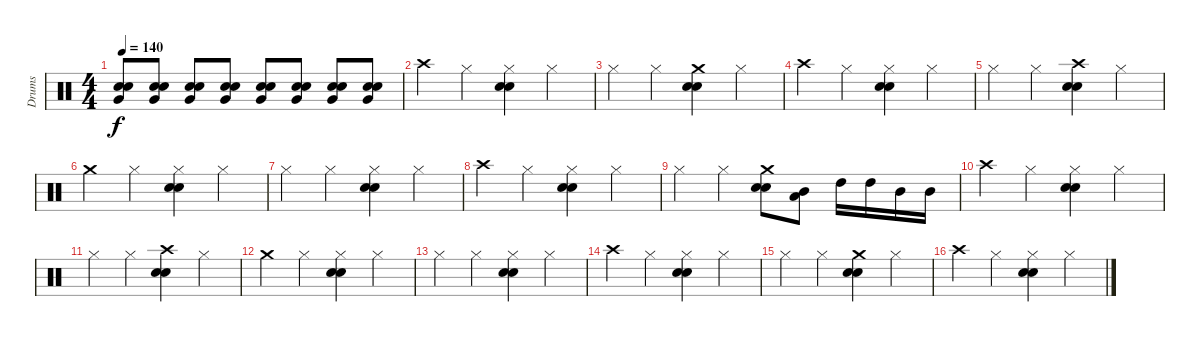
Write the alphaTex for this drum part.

\track ("Drums" "Drums") {instrument percussion}
\staff {score}
\articulation defaults
\ts (4 4)
\tempo 140
\clef neutral
\ks c
("Electric Snare (hit)" "Snare (hit) 2" "Very Low Tom (hit)").8{dy f volume 8} ("Electric Snare (hit)" "Snare (hit) 2" "Very Low Tom (hit)").8{volume 9} ("Electric Snare (hit)" "Snare (hit) 2" "Very Low Tom (hit)").8{volume 10} ("Electric Snare (hit)" "Snare (hit) 2" "Very Low Tom (hit)").8{volume 11} ("Electric Snare (hit)" "Snare (hit) 2" "Very Low Tom (hit)").8{volume 12} ("Electric Snare (hit)" "Snare (hit) 2" "Very Low Tom (hit)").8{volume 13} ("Electric Snare (hit)" "Snare (hit) 2" "Very Low Tom (hit)").8{volume 14} ("Electric Snare (hit)" "Snare (hit) 2" "Very Low Tom (hit)").8{volume 14} |
"Crash high (hit)".4{volume 15} "Hi-Hat (closed)".4 ("Hi-Hat (closed)" "Electric Snare (hit)" "Snare (hit) 2").4 "Hi-Hat (closed)".4 |
"Hi-Hat (closed)".4 "Hi-Hat (closed)".4 ("Crash medium (hit)" "Electric Snare (hit)" "Snare (hit) 2").4 "Hi-Hat (closed)".4 |
"Crash high (hit)".4 "Hi-Hat (closed)".4 ("Hi-Hat (closed)" "Electric Snare (hit)" "Snare (hit) 2").4 "Hi-Hat (closed)".4 |
"Hi-Hat (closed)".4 "Hi-Hat (closed)".4 ("Crash high (hit)" "Electric Snare (hit)" "Snare (hit) 2").4 "Hi-Hat (closed)".4 |
"Crash medium (hit)".4 "Hi-Hat (closed)".4 ("Hi-Hat (closed)" "Electric Snare (hit)" "Snare (hit) 2").4 "Hi-Hat (closed)".4 |
"Hi-Hat (closed)".4 "Hi-Hat (closed)".4 ("Hi-Hat (closed)" "Electric Snare (hit)" "Snare (hit) 2").4 "Hi-Hat (closed)".4 |
"Crash high (hit)".4 "Hi-Hat (closed)".4 ("Hi-Hat (closed)" "Electric Snare (hit)" "Snare (hit) 2").4 "Hi-Hat (closed)".4 |
"Hi-Hat (closed)".4 "Hi-Hat (closed)".4 ("Crash medium (hit)" "Electric Snare (hit)" "Snare (hit) 2").8 ("Mid Tom (hit)" "Low Tom (hit)").8{bd 120} "High Tom (hit)".16 "High Tom (hit)".16 "Mid Tom (hit)".16 "Mid Tom (hit)".16 |
"Crash high (hit)".4 "Hi-Hat (closed)".4 ("Hi-Hat (closed)" "Electric Snare (hit)" "Snare (hit) 2").4 "Hi-Hat (closed)".4 |
"Hi-Hat (closed)".4 "Hi-Hat (closed)".4 ("Crash high (hit)" "Electric Snare (hit)" "Snare (hit) 2").4 "Hi-Hat (closed)".4 |
"Crash medium (hit)".4 "Hi-Hat (closed)".4 ("Hi-Hat (closed)" "Electric Snare (hit)" "Snare (hit) 2").4 "Hi-Hat (closed)".4 |
"Hi-Hat (closed)".4 "Hi-Hat (closed)".4 ("Hi-Hat (closed)" "Electric Snare (hit)" "Snare (hit) 2").4 "Hi-Hat (closed)".4 |
"Crash high (hit)".4 "Hi-Hat (closed)".4 ("Hi-Hat (closed)" "Electric Snare (hit)" "Snare (hit) 2").4 "Hi-Hat (closed)".4 |
"Hi-Hat (closed)".4 "Hi-Hat (closed)".4 ("Crash medium (hit)" "Electric Snare (hit)" "Snare (hit) 2").4 "Hi-Hat (closed)".4 |
"Crash high (hit)".4 "Hi-Hat (closed)".4 ("Hi-Hat (closed)" "Electric Snare (hit)" "Snare (hit) 2").4 "Hi-Hat (closed)".4
